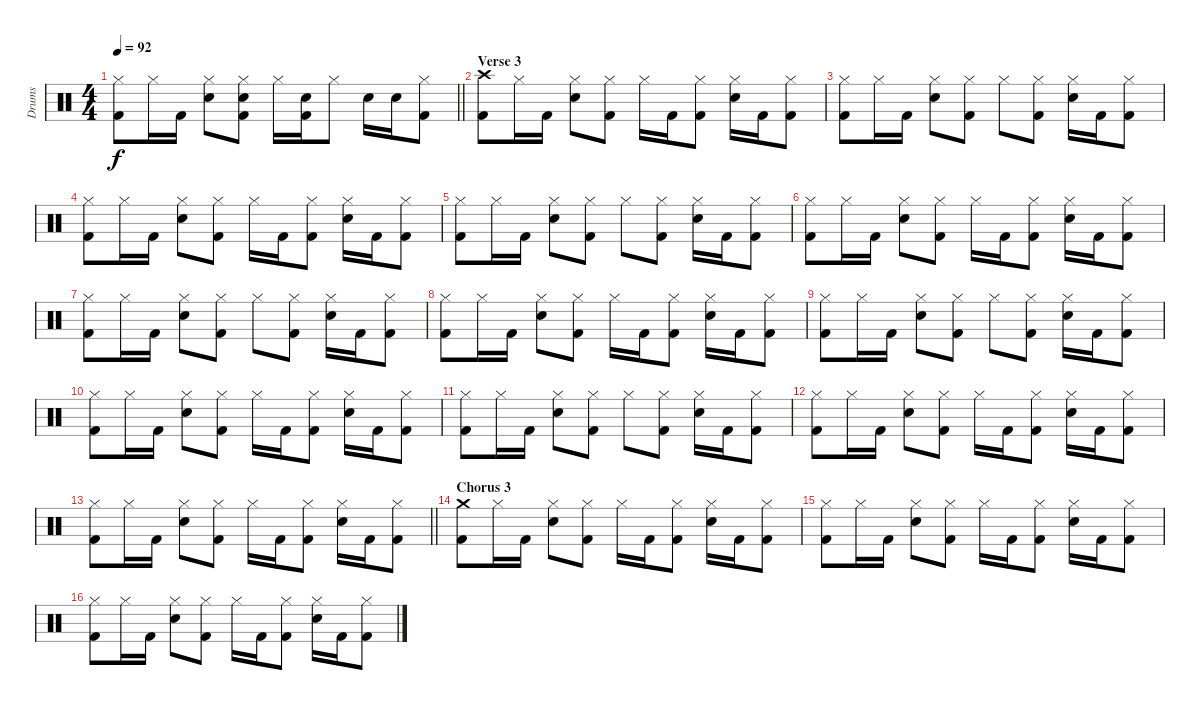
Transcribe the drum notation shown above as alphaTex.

\track ("Drums" "Drums") {instrument percussion}
\staff {score}
\articulation defaults
\ts (4 4)
\tempo 92
\clef neutral
\barLineRight lightlight
\ks c
("Hi-Hat (closed)" "Kick (hit) 2").8{dy f} "Hi-Hat (closed)".16 "Kick (hit) 2".16 ("Hi-Hat (closed)" "Electric Snare (hit)").8 ("Hi-Hat (closed)" "Electric Snare (hit)" "Kick (hit) 2").8 "Hi-Hat (closed)".16 ("Electric Snare (hit)" "Kick (hit) 2").16 "Hi-Hat (closed)".8 "Electric Snare (hit)".16 "Electric Snare (hit)".16 ("Hi-Hat (closed)" "Kick (hit) 2").8 |
\section ("" "Verse 3")
("Crash high (hit)" "Kick (hit) 2").8 "Hi-Hat (closed)".16 "Kick (hit) 2".16 ("Hi-Hat (closed)" "Electric Snare (hit)").8 ("Hi-Hat (closed)" "Kick (hit) 2").8 "Hi-Hat (closed)".16 "Kick (hit) 2".16 ("Hi-Hat (closed)" "Kick (hit) 2").8 ("Hi-Hat (closed)" "Electric Snare (hit)").16 "Kick (hit) 2".16 ("Hi-Hat (closed)" "Kick (hit) 2").8 |
("Hi-Hat (closed)" "Kick (hit) 2").8 "Hi-Hat (closed)".16 "Kick (hit) 2".16 ("Hi-Hat (closed)" "Electric Snare (hit)").8 ("Hi-Hat (closed)" "Kick (hit) 2").8 "Hi-Hat (closed)".8 ("Hi-Hat (closed)" "Kick (hit) 2").8 ("Hi-Hat (closed)" "Electric Snare (hit)").16 "Kick (hit) 2".16 ("Hi-Hat (closed)" "Kick (hit) 2").8 |
("Hi-Hat (closed)" "Kick (hit) 2").8 "Hi-Hat (closed)".16 "Kick (hit) 2".16 ("Hi-Hat (closed)" "Electric Snare (hit)").8 ("Hi-Hat (closed)" "Kick (hit) 2").8 "Hi-Hat (closed)".16 "Kick (hit) 2".16 ("Hi-Hat (closed)" "Kick (hit) 2").8 ("Hi-Hat (closed)" "Electric Snare (hit)").16 "Kick (hit) 2".16 ("Hi-Hat (closed)" "Kick (hit) 2").8 |
("Hi-Hat (closed)" "Kick (hit) 2").8 "Hi-Hat (closed)".16 "Kick (hit) 2".16 ("Hi-Hat (closed)" "Electric Snare (hit)").8 ("Hi-Hat (closed)" "Kick (hit) 2").8 "Hi-Hat (closed)".8 ("Hi-Hat (closed)" "Kick (hit) 2").8 ("Hi-Hat (closed)" "Electric Snare (hit)").16 "Kick (hit) 2".16 ("Hi-Hat (closed)" "Kick (hit) 2").8 |
("Hi-Hat (closed)" "Kick (hit) 2").8 "Hi-Hat (closed)".16 "Kick (hit) 2".16 ("Hi-Hat (closed)" "Electric Snare (hit)").8 ("Hi-Hat (closed)" "Kick (hit) 2").8 "Hi-Hat (closed)".16 "Kick (hit) 2".16 ("Hi-Hat (closed)" "Kick (hit) 2").8 ("Hi-Hat (closed)" "Electric Snare (hit)").16 "Kick (hit) 2".16 ("Hi-Hat (closed)" "Kick (hit) 2").8 |
("Hi-Hat (closed)" "Kick (hit) 2").8 "Hi-Hat (closed)".16 "Kick (hit) 2".16 ("Hi-Hat (closed)" "Electric Snare (hit)").8 ("Hi-Hat (closed)" "Kick (hit) 2").8 "Hi-Hat (closed)".8 ("Hi-Hat (closed)" "Kick (hit) 2").8 ("Hi-Hat (closed)" "Electric Snare (hit)").16 "Kick (hit) 2".16 ("Hi-Hat (closed)" "Kick (hit) 2").8 |
("Hi-Hat (closed)" "Kick (hit) 2").8 "Hi-Hat (closed)".16 "Kick (hit) 2".16 ("Hi-Hat (closed)" "Electric Snare (hit)").8 ("Hi-Hat (closed)" "Kick (hit) 2").8 "Hi-Hat (closed)".16 "Kick (hit) 2".16 ("Hi-Hat (closed)" "Kick (hit) 2").8 ("Hi-Hat (closed)" "Electric Snare (hit)").16 "Kick (hit) 2".16 ("Hi-Hat (closed)" "Kick (hit) 2").8 |
("Hi-Hat (closed)" "Kick (hit) 2").8 "Hi-Hat (closed)".16 "Kick (hit) 2".16 ("Hi-Hat (closed)" "Electric Snare (hit)").8 ("Hi-Hat (closed)" "Kick (hit) 2").8 "Hi-Hat (closed)".8 ("Hi-Hat (closed)" "Kick (hit) 2").8 ("Hi-Hat (closed)" "Electric Snare (hit)").16 "Kick (hit) 2".16 ("Hi-Hat (closed)" "Kick (hit) 2").8 |
("Hi-Hat (closed)" "Kick (hit) 2").8 "Hi-Hat (closed)".16 "Kick (hit) 2".16 ("Hi-Hat (closed)" "Electric Snare (hit)").8 ("Hi-Hat (closed)" "Kick (hit) 2").8 "Hi-Hat (closed)".16 "Kick (hit) 2".16 ("Hi-Hat (closed)" "Kick (hit) 2").8 ("Hi-Hat (closed)" "Electric Snare (hit)").16 "Kick (hit) 2".16 ("Hi-Hat (closed)" "Kick (hit) 2").8 |
("Hi-Hat (closed)" "Kick (hit) 2").8 "Hi-Hat (closed)".16 "Kick (hit) 2".16 ("Hi-Hat (closed)" "Electric Snare (hit)").8 ("Hi-Hat (closed)" "Kick (hit) 2").8 "Hi-Hat (closed)".8 ("Hi-Hat (closed)" "Kick (hit) 2").8 ("Hi-Hat (closed)" "Electric Snare (hit)").16 "Kick (hit) 2".16 ("Hi-Hat (closed)" "Kick (hit) 2").8 |
("Hi-Hat (closed)" "Kick (hit) 2").8 "Hi-Hat (closed)".16 "Kick (hit) 2".16 ("Hi-Hat (closed)" "Electric Snare (hit)").8 ("Hi-Hat (closed)" "Kick (hit) 2").8 "Hi-Hat (closed)".16 "Kick (hit) 2".16 ("Hi-Hat (closed)" "Kick (hit) 2").8 ("Hi-Hat (closed)" "Electric Snare (hit)").16 "Kick (hit) 2".16 ("Hi-Hat (closed)" "Kick (hit) 2").8 |
\barLineRight lightlight
("Hi-Hat (closed)" "Kick (hit) 2").8 "Hi-Hat (closed)".16 "Kick (hit) 2".16 ("Hi-Hat (closed)" "Electric Snare (hit)").8 ("Hi-Hat (closed)" "Kick (hit) 2").8 "Hi-Hat (closed)".16 "Kick (hit) 2".16 ("Hi-Hat (closed)" "Kick (hit) 2").8 ("Hi-Hat (closed)" "Electric Snare (hit)").16 "Kick (hit) 2".16 ("Hi-Hat (closed)" "Kick (hit) 2").8 |
\section ("" "Chorus 3")
("Crash medium (hit)" "Kick (hit) 2").8 "Hi-Hat (closed)".16 "Kick (hit) 2".16 ("Hi-Hat (closed)" "Electric Snare (hit)").8 ("Hi-Hat (closed)" "Kick (hit) 2").8 "Hi-Hat (closed)".16 "Kick (hit) 2".16 ("Hi-Hat (closed)" "Kick (hit) 2").8 ("Hi-Hat (closed)" "Electric Snare (hit)").16 "Kick (hit) 2".16 ("Hi-Hat (closed)" "Kick (hit) 2").8 |
("Hi-Hat (closed)" "Kick (hit) 2").8 "Hi-Hat (closed)".16 "Kick (hit) 2".16 ("Hi-Hat (closed)" "Electric Snare (hit)").8 ("Hi-Hat (closed)" "Kick (hit) 2").8 "Hi-Hat (closed)".16 "Kick (hit) 2".16 ("Hi-Hat (closed)" "Kick (hit) 2").8 ("Hi-Hat (closed)" "Electric Snare (hit)").16 "Kick (hit) 2".16 ("Hi-Hat (closed)" "Kick (hit) 2").8 |
("Hi-Hat (closed)" "Kick (hit) 2").8 "Hi-Hat (closed)".16 "Kick (hit) 2".16 ("Hi-Hat (closed)" "Electric Snare (hit)").8 ("Hi-Hat (closed)" "Kick (hit) 2").8 "Hi-Hat (closed)".16 "Kick (hit) 2".16 ("Hi-Hat (closed)" "Kick (hit) 2").8 ("Hi-Hat (closed)" "Electric Snare (hit)").16 "Kick (hit) 2".16 ("Hi-Hat (closed)" "Kick (hit) 2").8
